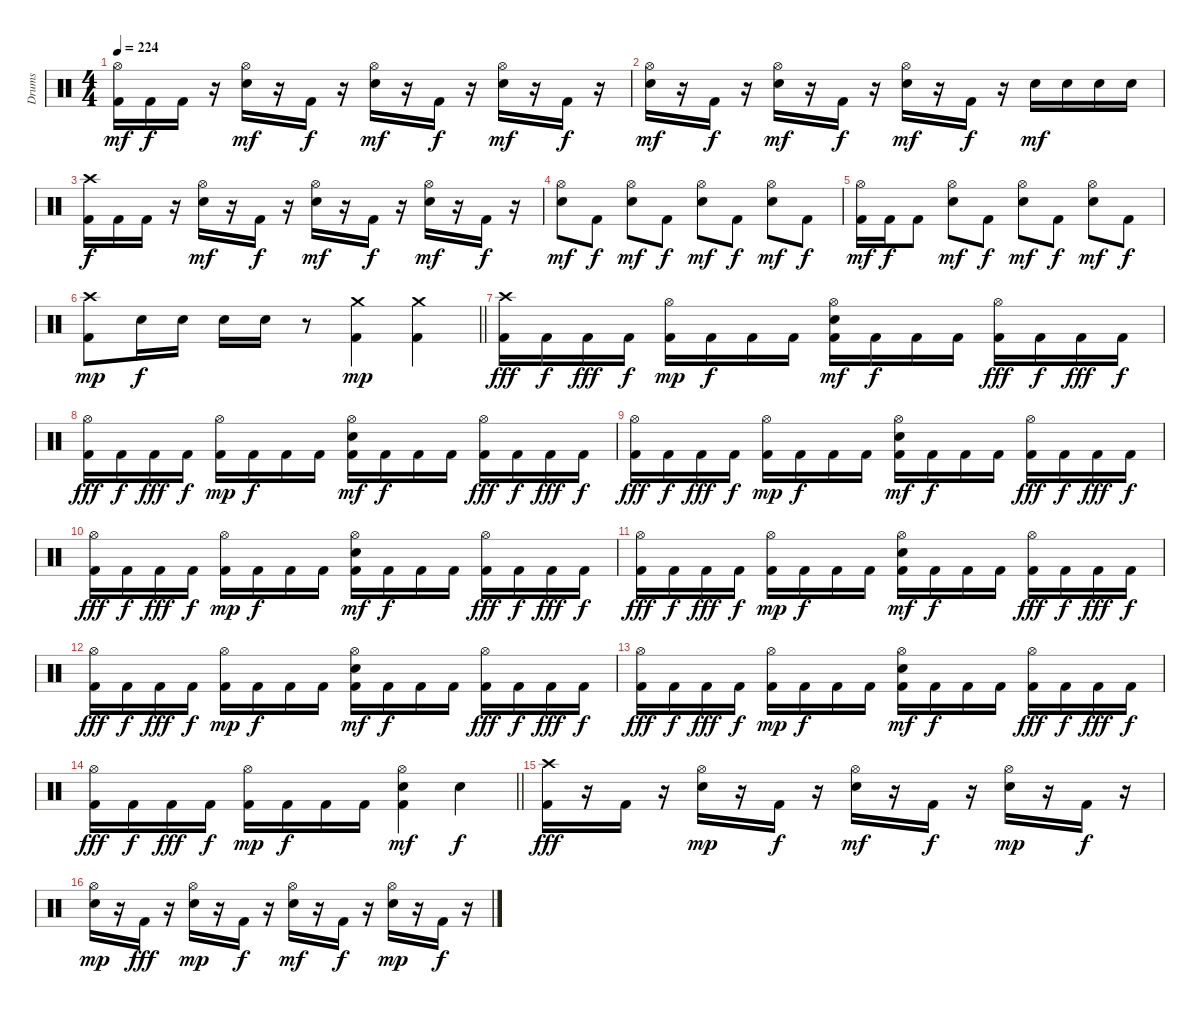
\track ("Drums" "Drums") {instrument percussion}
\staff {score}
\articulation defaults
\ts (4 4)
\tempo 224
\clef neutral
\ks c
("Hi-Hat (open)" "Kick (hit) 2").16{dy mf} "Kick (hit) 2".16{dy f} "Kick (hit) 2".16 r.16 ("Hi-Hat (open)" "Snare (hit) 2").16{dy mf} r.16 "Kick (hit) 2".16{dy f} r.16 ("Hi-Hat (open)" "Snare (hit) 2").16{dy mf} r.16 "Kick (hit) 2".16{dy f} r.16 ("Hi-Hat (open)" "Snare (hit) 2").16{dy mf} r.16 "Kick (hit) 2".16{dy f} r.16 |
("Hi-Hat (open)" "Snare (hit) 2").16{dy mf} r.16 "Kick (hit) 2".16{dy f} r.16 ("Hi-Hat (open)" "Snare (hit) 2").16{dy mf} r.16 "Kick (hit) 2".16{dy f} r.16 ("Hi-Hat (open)" "Snare (hit) 2").16{dy mf} r.16 "Kick (hit) 2".16{dy f} r.16 "Snare (hit) 2".16{dy mf} "Snare (hit) 2".16 "Snare (hit) 2".16 "Snare (hit) 2".16 |
("Crash high (hit)" "Kick (hit) 2").16{dy f} "Kick (hit) 2".16 "Kick (hit) 2".16 r.16 ("Hi-Hat (open)" "Snare (hit) 2").16{dy mf} r.16 "Kick (hit) 2".16{dy f} r.16 ("Hi-Hat (open)" "Snare (hit) 2").16{dy mf} r.16 "Kick (hit) 2".16{dy f} r.16 ("Hi-Hat (open)" "Snare (hit) 2").16{dy mf} r.16 "Kick (hit) 2".16{dy f} r.16 |
("Hi-Hat (open)" "Snare (hit) 2").8{dy mf} "Kick (hit) 2".8{dy f} ("Hi-Hat (open)" "Snare (hit) 2").8{dy mf} "Kick (hit) 2".8{dy f} ("Hi-Hat (open)" "Snare (hit) 2").8{dy mf} "Kick (hit) 2".8{dy f} ("Hi-Hat (open)" "Snare (hit) 2").8{dy mf} "Kick (hit) 2".8{dy f} |
("Hi-Hat (open)" "Kick (hit) 2").16{dy mf} "Kick (hit) 2".16{dy f} "Kick (hit) 2".8 ("Hi-Hat (open)" "Snare (hit) 2").8{dy mf} "Kick (hit) 2".8{dy f} ("Hi-Hat (open)" "Snare (hit) 2").8{dy mf} "Kick (hit) 2".8{dy f} ("Hi-Hat (open)" "Snare (hit) 2").8{dy mf} "Kick (hit) 2".8{dy f} |
\barLineRight lightlight
("Crash high (hit)" "Kick (hit) 2").8{dy mp} "Snare (hit) 2".16{dy f} "Snare (hit) 2".16 "Snare (hit) 2".16 "Snare (hit) 2".16 r.8 ("Crash medium (hit)" "Kick (hit) 2").4{dy mp} ("Crash medium (hit)" "Kick (hit) 2").4 |
("Crash high (hit)" "Kick (hit) 2").16{dy fff} "Kick (hit) 2".16{dy f} "Kick (hit) 2".16{dy fff} "Kick (hit) 2".16{dy f} ("Hi-Hat (open)" "Kick (hit) 2").16{dy mp} "Kick (hit) 2".16{dy f} "Kick (hit) 2".16 "Kick (hit) 2".16 ("Hi-Hat (open)" "Snare (hit) 2" "Kick (hit) 2").16{dy mf} "Kick (hit) 2".16{dy f} "Kick (hit) 2".16 "Kick (hit) 2".16 ("Hi-Hat (open)" "Kick (hit) 2").16{dy fff} "Kick (hit) 2".16{dy f} "Kick (hit) 2".16{dy fff} "Kick (hit) 2".16{dy f} |
("Hi-Hat (open)" "Kick (hit) 2").16{dy fff} "Kick (hit) 2".16{dy f} "Kick (hit) 2".16{dy fff} "Kick (hit) 2".16{dy f} ("Hi-Hat (open)" "Kick (hit) 2").16{dy mp} "Kick (hit) 2".16{dy f} "Kick (hit) 2".16 "Kick (hit) 2".16 ("Hi-Hat (open)" "Snare (hit) 2" "Kick (hit) 2").16{dy mf} "Kick (hit) 2".16{dy f} "Kick (hit) 2".16 "Kick (hit) 2".16 ("Hi-Hat (open)" "Kick (hit) 2").16{dy fff} "Kick (hit) 2".16{dy f} "Kick (hit) 2".16{dy fff} "Kick (hit) 2".16{dy f} |
("Hi-Hat (open)" "Kick (hit) 2").16{dy fff} "Kick (hit) 2".16{dy f} "Kick (hit) 2".16{dy fff} "Kick (hit) 2".16{dy f} ("Hi-Hat (open)" "Kick (hit) 2").16{dy mp} "Kick (hit) 2".16{dy f} "Kick (hit) 2".16 "Kick (hit) 2".16 ("Hi-Hat (open)" "Snare (hit) 2" "Kick (hit) 2").16{dy mf} "Kick (hit) 2".16{dy f} "Kick (hit) 2".16 "Kick (hit) 2".16 ("Hi-Hat (open)" "Kick (hit) 2").16{dy fff} "Kick (hit) 2".16{dy f} "Kick (hit) 2".16{dy fff} "Kick (hit) 2".16{dy f} |
("Hi-Hat (open)" "Kick (hit) 2").16{dy fff} "Kick (hit) 2".16{dy f} "Kick (hit) 2".16{dy fff} "Kick (hit) 2".16{dy f} ("Hi-Hat (open)" "Kick (hit) 2").16{dy mp} "Kick (hit) 2".16{dy f} "Kick (hit) 2".16 "Kick (hit) 2".16 ("Hi-Hat (open)" "Snare (hit) 2" "Kick (hit) 2").16{dy mf} "Kick (hit) 2".16{dy f} "Kick (hit) 2".16 "Kick (hit) 2".16 ("Hi-Hat (open)" "Kick (hit) 2").16{dy fff} "Kick (hit) 2".16{dy f} "Kick (hit) 2".16{dy fff} "Kick (hit) 2".16{dy f} |
("Hi-Hat (open)" "Kick (hit) 2").16{dy fff} "Kick (hit) 2".16{dy f} "Kick (hit) 2".16{dy fff} "Kick (hit) 2".16{dy f} ("Hi-Hat (open)" "Kick (hit) 2").16{dy mp} "Kick (hit) 2".16{dy f} "Kick (hit) 2".16 "Kick (hit) 2".16 ("Hi-Hat (open)" "Snare (hit) 2" "Kick (hit) 2").16{dy mf} "Kick (hit) 2".16{dy f} "Kick (hit) 2".16 "Kick (hit) 2".16 ("Hi-Hat (open)" "Kick (hit) 2").16{dy fff} "Kick (hit) 2".16{dy f} "Kick (hit) 2".16{dy fff} "Kick (hit) 2".16{dy f} |
("Hi-Hat (open)" "Kick (hit) 2").16{dy fff} "Kick (hit) 2".16{dy f} "Kick (hit) 2".16{dy fff} "Kick (hit) 2".16{dy f} ("Hi-Hat (open)" "Kick (hit) 2").16{dy mp} "Kick (hit) 2".16{dy f} "Kick (hit) 2".16 "Kick (hit) 2".16 ("Hi-Hat (open)" "Snare (hit) 2" "Kick (hit) 2").16{dy mf} "Kick (hit) 2".16{dy f} "Kick (hit) 2".16 "Kick (hit) 2".16 ("Hi-Hat (open)" "Kick (hit) 2").16{dy fff} "Kick (hit) 2".16{dy f} "Kick (hit) 2".16{dy fff} "Kick (hit) 2".16{dy f} |
("Hi-Hat (open)" "Kick (hit) 2").16{dy fff} "Kick (hit) 2".16{dy f} "Kick (hit) 2".16{dy fff} "Kick (hit) 2".16{dy f} ("Hi-Hat (open)" "Kick (hit) 2").16{dy mp} "Kick (hit) 2".16{dy f} "Kick (hit) 2".16 "Kick (hit) 2".16 ("Hi-Hat (open)" "Snare (hit) 2" "Kick (hit) 2").16{dy mf} "Kick (hit) 2".16{dy f} "Kick (hit) 2".16 "Kick (hit) 2".16 ("Hi-Hat (open)" "Kick (hit) 2").16{dy fff} "Kick (hit) 2".16{dy f} "Kick (hit) 2".16{dy fff} "Kick (hit) 2".16{dy f} |
\barLineRight lightlight
("Hi-Hat (open)" "Kick (hit) 2").16{dy fff} "Kick (hit) 2".16{dy f} "Kick (hit) 2".16{dy fff} "Kick (hit) 2".16{dy f} ("Hi-Hat (open)" "Kick (hit) 2").16{dy mp} "Kick (hit) 2".16{dy f} "Kick (hit) 2".16 "Kick (hit) 2".16 ("Hi-Hat (open)" "Snare (hit) 2" "Kick (hit) 2").4{dy mf} "Snare (hit) 2".4{dy f} |
("Crash high (hit)" "Kick (hit) 2").16{dy fff} r.16 "Kick (hit) 2".16 r.16 ("Hi-Hat (open)" "Snare (hit) 2").16{dy mp} r.16 "Kick (hit) 2".16{dy f} r.16 ("Hi-Hat (open)" "Snare (hit) 2").16{dy mf} r.16 "Kick (hit) 2".16{dy f} r.16 ("Hi-Hat (open)" "Snare (hit) 2").16{dy mp} r.16 "Kick (hit) 2".16{dy f} r.16 |
("Hi-Hat (open)" "Snare (hit) 2").16{dy mp} r.16 "Kick (hit) 2".16{dy fff} r.16 ("Hi-Hat (open)" "Snare (hit) 2").16{dy mp} r.16 "Kick (hit) 2".16{dy f} r.16 ("Hi-Hat (open)" "Snare (hit) 2").16{dy mf} r.16 "Kick (hit) 2".16{dy f} r.16 ("Hi-Hat (open)" "Snare (hit) 2").16{dy mp} r.16 "Kick (hit) 2".16{dy f} r.16
